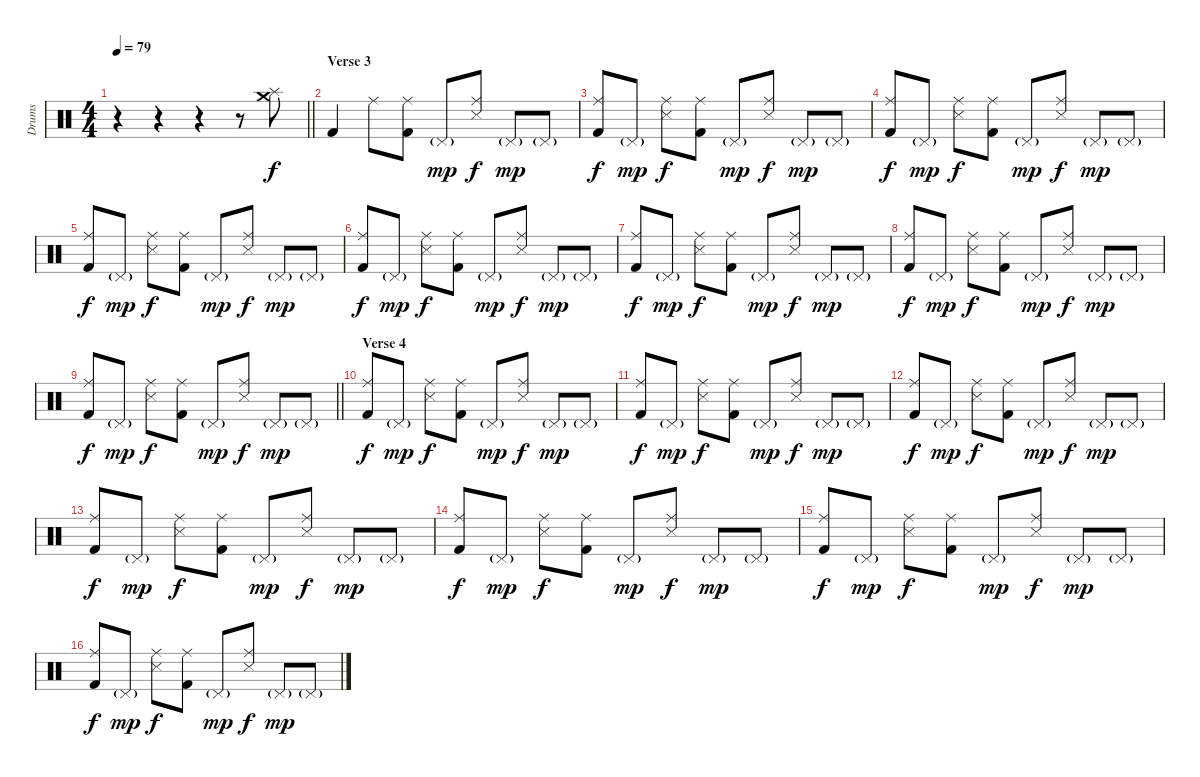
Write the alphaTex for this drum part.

\track ("Drums" "Drums") {instrument percussion}
\staff {score}
\articulation defaults
\ts (4 4)
\tempo 79
\clef neutral
\barLineRight lightlight
\ks c
r.4{dy f} r.4 r.4 r.8 ("Crash medium (hit)" "Splash (hit)").8 |
\section ("" "Verse 3")
"Kick (hit) 2".4 "Ride (middle)".8 ("Ride (middle)" "Kick (hit) 2").8 "Pedal Hi-Hat (hit)"{g}.8{dy mp} ("Ride (middle)" "Snare (side stick) 3").8{dy f} "Pedal Hi-Hat (hit)"{g}.8{dy mp} "Pedal Hi-Hat (hit)"{g}.8 |
("Ride (middle)" "Kick (hit) 2").8{dy f} "Pedal Hi-Hat (hit)"{g}.8{dy mp} ("Ride (middle)" "Snare (side stick) 3").8{dy f} ("Ride (middle)" "Kick (hit) 2").8 "Pedal Hi-Hat (hit)"{g}.8{dy mp} ("Ride (middle)" "Snare (side stick) 3").8{dy f} "Pedal Hi-Hat (hit)"{g}.8{dy mp} "Pedal Hi-Hat (hit)"{g}.8 |
("Ride (middle)" "Kick (hit) 2").8{dy f} "Pedal Hi-Hat (hit)"{g}.8{dy mp} ("Ride (middle)" "Snare (side stick) 3").8{dy f} ("Ride (middle)" "Kick (hit) 2").8 "Pedal Hi-Hat (hit)"{g}.8{dy mp} ("Ride (middle)" "Snare (side stick) 3").8{dy f} "Pedal Hi-Hat (hit)"{g}.8{dy mp} "Pedal Hi-Hat (hit)"{g}.8 |
("Ride (middle)" "Kick (hit) 2").8{dy f} "Pedal Hi-Hat (hit)"{g}.8{dy mp} ("Ride (middle)" "Snare (side stick) 3").8{dy f} ("Ride (middle)" "Kick (hit) 2").8 "Pedal Hi-Hat (hit)"{g}.8{dy mp} ("Ride (middle)" "Snare (side stick) 3").8{dy f} "Pedal Hi-Hat (hit)"{g}.8{dy mp} "Pedal Hi-Hat (hit)"{g}.8 |
("Ride (middle)" "Kick (hit) 2").8{dy f} "Pedal Hi-Hat (hit)"{g}.8{dy mp} ("Ride (middle)" "Snare (side stick) 3").8{dy f} ("Ride (middle)" "Kick (hit) 2").8 "Pedal Hi-Hat (hit)"{g}.8{dy mp} ("Ride (middle)" "Snare (side stick) 3").8{dy f} "Pedal Hi-Hat (hit)"{g}.8{dy mp} "Pedal Hi-Hat (hit)"{g}.8 |
("Ride (middle)" "Kick (hit) 2").8{dy f} "Pedal Hi-Hat (hit)"{g}.8{dy mp} ("Ride (middle)" "Snare (side stick) 3").8{dy f} ("Ride (middle)" "Kick (hit) 2").8 "Pedal Hi-Hat (hit)"{g}.8{dy mp} ("Ride (middle)" "Snare (side stick) 3").8{dy f} "Pedal Hi-Hat (hit)"{g}.8{dy mp} "Pedal Hi-Hat (hit)"{g}.8 |
("Ride (middle)" "Kick (hit) 2").8{dy f} "Pedal Hi-Hat (hit)"{g}.8{dy mp} ("Ride (middle)" "Snare (side stick) 3").8{dy f} ("Ride (middle)" "Kick (hit) 2").8 "Pedal Hi-Hat (hit)"{g}.8{dy mp} ("Ride (middle)" "Snare (side stick) 3").8{dy f} "Pedal Hi-Hat (hit)"{g}.8{dy mp} "Pedal Hi-Hat (hit)"{g}.8 |
\barLineRight lightlight
("Ride (middle)" "Kick (hit) 2").8{dy f} "Pedal Hi-Hat (hit)"{g}.8{dy mp} ("Ride (middle)" "Snare (side stick) 3").8{dy f} ("Ride (middle)" "Kick (hit) 2").8 "Pedal Hi-Hat (hit)"{g}.8{dy mp} ("Ride (middle)" "Snare (side stick) 3").8{dy f} "Pedal Hi-Hat (hit)"{g}.8{dy mp} "Pedal Hi-Hat (hit)"{g}.8 |
\section ("" "Verse 4")
("Ride (middle)" "Kick (hit) 2").8{dy f} "Pedal Hi-Hat (hit)"{g}.8{dy mp} ("Ride (middle)" "Snare (side stick) 3").8{dy f} ("Ride (middle)" "Kick (hit) 2").8 "Pedal Hi-Hat (hit)"{g}.8{dy mp} ("Ride (middle)" "Snare (side stick) 3").8{dy f} "Pedal Hi-Hat (hit)"{g}.8{dy mp} "Pedal Hi-Hat (hit)"{g}.8 |
("Ride (middle)" "Kick (hit) 2").8{dy f} "Pedal Hi-Hat (hit)"{g}.8{dy mp} ("Ride (middle)" "Snare (side stick) 3").8{dy f} ("Ride (middle)" "Kick (hit) 2").8 "Pedal Hi-Hat (hit)"{g}.8{dy mp} ("Ride (middle)" "Snare (side stick) 3").8{dy f} "Pedal Hi-Hat (hit)"{g}.8{dy mp} "Pedal Hi-Hat (hit)"{g}.8 |
("Ride (middle)" "Kick (hit) 2").8{dy f} "Pedal Hi-Hat (hit)"{g}.8{dy mp} ("Ride (middle)" "Snare (side stick) 3").8{dy f} ("Ride (middle)" "Kick (hit) 2").8 "Pedal Hi-Hat (hit)"{g}.8{dy mp} ("Ride (middle)" "Snare (side stick) 3").8{dy f} "Pedal Hi-Hat (hit)"{g}.8{dy mp} "Pedal Hi-Hat (hit)"{g}.8 |
("Ride (middle)" "Kick (hit) 2").8{dy f} "Pedal Hi-Hat (hit)"{g}.8{dy mp} ("Ride (middle)" "Snare (side stick) 3").8{dy f} ("Ride (middle)" "Kick (hit) 2").8 "Pedal Hi-Hat (hit)"{g}.8{dy mp} ("Ride (middle)" "Snare (side stick) 3").8{dy f} "Pedal Hi-Hat (hit)"{g}.8{dy mp} "Pedal Hi-Hat (hit)"{g}.8 |
("Ride (middle)" "Kick (hit) 2").8{dy f} "Pedal Hi-Hat (hit)"{g}.8{dy mp} ("Ride (middle)" "Snare (side stick) 3").8{dy f} ("Ride (middle)" "Kick (hit) 2").8 "Pedal Hi-Hat (hit)"{g}.8{dy mp} ("Ride (middle)" "Snare (side stick) 3").8{dy f} "Pedal Hi-Hat (hit)"{g}.8{dy mp} "Pedal Hi-Hat (hit)"{g}.8 |
("Ride (middle)" "Kick (hit) 2").8{dy f} "Pedal Hi-Hat (hit)"{g}.8{dy mp} ("Ride (middle)" "Snare (side stick) 3").8{dy f} ("Ride (middle)" "Kick (hit) 2").8 "Pedal Hi-Hat (hit)"{g}.8{dy mp} ("Ride (middle)" "Snare (side stick) 3").8{dy f} "Pedal Hi-Hat (hit)"{g}.8{dy mp} "Pedal Hi-Hat (hit)"{g}.8 |
("Ride (middle)" "Kick (hit) 2").8{dy f} "Pedal Hi-Hat (hit)"{g}.8{dy mp} ("Ride (middle)" "Snare (side stick) 3").8{dy f} ("Ride (middle)" "Kick (hit) 2").8 "Pedal Hi-Hat (hit)"{g}.8{dy mp} ("Ride (middle)" "Snare (side stick) 3").8{dy f} "Pedal Hi-Hat (hit)"{g}.8{dy mp} "Pedal Hi-Hat (hit)"{g}.8
